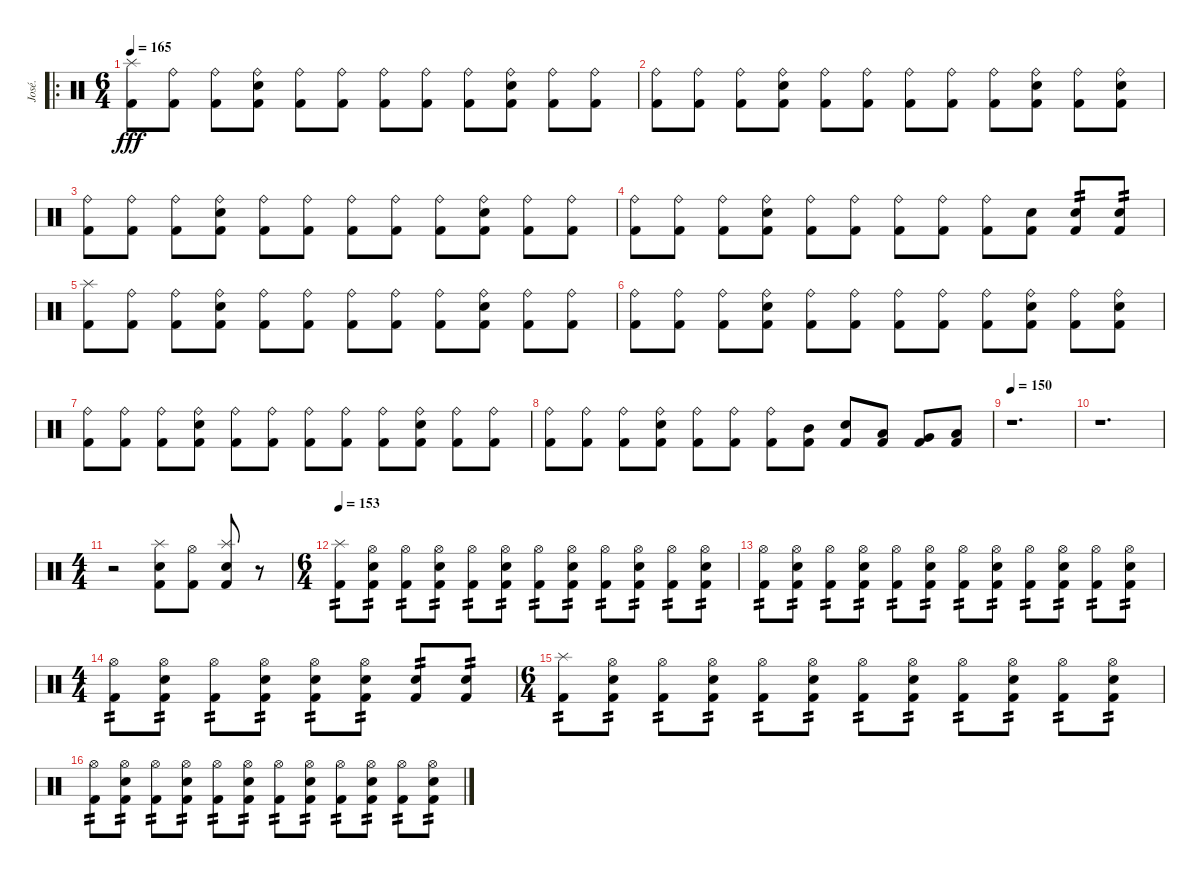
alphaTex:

\track ("José." "José.") {instrument percussion}
\staff {score}
\articulation defaults
\ro
\ts (6 4)
\tempo 165
\clef neutral
\ks c
("Kick (hit) 2" "Splash (hit)").8{dy fff} ("Kick (hit) 2" "Ride (bell)").8 ("Kick (hit) 2" "Ride (bell)").8 ("Kick (hit) 2" "Snare (hit) 2" "Ride (bell)").8 ("Kick (hit) 2" "Ride (bell)").8 ("Kick (hit) 2" "Ride (bell)").8 ("Kick (hit) 2" "Ride (bell)").8 ("Kick (hit) 2" "Ride (bell)").8 ("Kick (hit) 2" "Ride (bell)").8 ("Kick (hit) 2" "Snare (hit) 2" "Ride (bell)").8 ("Kick (hit) 2" "Ride (bell)").8 ("Kick (hit) 2" "Ride (bell)").8 |
("Kick (hit) 2" "Ride (bell)").8 ("Kick (hit) 2" "Ride (bell)").8 ("Kick (hit) 2" "Ride (bell)").8 ("Kick (hit) 2" "Snare (hit) 2" "Ride (bell)").8 ("Kick (hit) 2" "Ride (bell)").8 ("Kick (hit) 2" "Ride (bell)").8 ("Kick (hit) 2" "Ride (bell)").8 ("Kick (hit) 2" "Ride (bell)").8 ("Kick (hit) 2" "Ride (bell)").8 ("Kick (hit) 2" "Snare (hit) 2" "Ride (bell)").8 ("Kick (hit) 2" "Ride (bell)").8 ("Kick (hit) 2" "Snare (hit) 2" "Ride (bell)").8 |
("Kick (hit) 2" "Ride (bell)").8 ("Kick (hit) 2" "Ride (bell)").8 ("Kick (hit) 2" "Ride (bell)").8 ("Kick (hit) 2" "Snare (hit) 2" "Ride (bell)").8 ("Kick (hit) 2" "Ride (bell)").8 ("Kick (hit) 2" "Ride (bell)").8 ("Kick (hit) 2" "Ride (bell)").8 ("Kick (hit) 2" "Ride (bell)").8 ("Kick (hit) 2" "Ride (bell)").8 ("Kick (hit) 2" "Snare (hit) 2" "Ride (bell)").8 ("Kick (hit) 2" "Ride (bell)").8 ("Kick (hit) 2" "Ride (bell)").8 |
("Kick (hit) 2" "Ride (bell)").8 ("Kick (hit) 2" "Ride (bell)").8 ("Kick (hit) 2" "Ride (bell)").8 ("Kick (hit) 2" "Snare (hit) 2" "Ride (bell)").8 ("Kick (hit) 2" "Ride (bell)").8 ("Kick (hit) 2" "Ride (bell)").8 ("Kick (hit) 2" "Ride (bell)").8 ("Kick (hit) 2" "Ride (bell)").8 ("Kick (hit) 2" "Ride (bell)").8 ("Kick (hit) 2" "Snare (hit) 2").8 ("Kick (hit) 2" "Snare (hit) 2").8{tp 2} ("Kick (hit) 2" "Snare (hit) 2").8{tp 2} |
("Kick (hit) 2" "Splash (hit)").8 ("Kick (hit) 2" "Ride (bell)").8 ("Kick (hit) 2" "Ride (bell)").8 ("Kick (hit) 2" "Snare (hit) 2" "Ride (bell)").8 ("Kick (hit) 2" "Ride (bell)").8 ("Kick (hit) 2" "Ride (bell)").8 ("Kick (hit) 2" "Ride (bell)").8 ("Kick (hit) 2" "Ride (bell)").8 ("Kick (hit) 2" "Ride (bell)").8 ("Kick (hit) 2" "Snare (hit) 2" "Ride (bell)").8 ("Kick (hit) 2" "Ride (bell)").8 ("Kick (hit) 2" "Ride (bell)").8 |
("Kick (hit) 2" "Ride (bell)").8 ("Kick (hit) 2" "Ride (bell)").8 ("Kick (hit) 2" "Ride (bell)").8 ("Kick (hit) 2" "Snare (hit) 2" "Ride (bell)").8 ("Kick (hit) 2" "Ride (bell)").8 ("Kick (hit) 2" "Ride (bell)").8 ("Kick (hit) 2" "Ride (bell)").8 ("Kick (hit) 2" "Ride (bell)").8 ("Kick (hit) 2" "Ride (bell)").8 ("Kick (hit) 2" "Snare (hit) 2" "Ride (bell)").8 ("Kick (hit) 2" "Ride (bell)").8 ("Kick (hit) 2" "Snare (hit) 2" "Ride (bell)").8 |
("Kick (hit) 2" "Ride (bell)").8 ("Kick (hit) 2" "Ride (bell)").8 ("Kick (hit) 2" "Ride (bell)").8 ("Kick (hit) 2" "Snare (hit) 2" "Ride (bell)").8 ("Kick (hit) 2" "Ride (bell)").8 ("Kick (hit) 2" "Ride (bell)").8 ("Kick (hit) 2" "Ride (bell)").8 ("Kick (hit) 2" "Ride (bell)").8 ("Kick (hit) 2" "Ride (bell)").8 ("Kick (hit) 2" "Snare (hit) 2" "Ride (bell)").8 ("Kick (hit) 2" "Ride (bell)").8 ("Kick (hit) 2" "Ride (bell)").8 |
("Kick (hit) 2" "Ride (bell)").8 ("Kick (hit) 2" "Ride (bell)").8 ("Kick (hit) 2" "Ride (bell)").8 ("Kick (hit) 2" "Snare (hit) 2" "Ride (bell)").8 ("Kick (hit) 2" "Ride (bell)").8 ("Kick (hit) 2" "Ride (bell)").8 ("Kick (hit) 2" "Ride (bell)").8 ("Kick (hit) 2" "Mid Tom (hit)").8 ("Kick (hit) 2" "Snare (hit) 2").8 ("Kick (hit) 2" "Low Tom (hit)").8 ("Kick (hit) 2" "Very Low Tom (hit)").8 ("Kick (hit) 2" "Low Floor Tom (hit)").8 |
\tempo 150
r.1{d} |
r.1{d} |
\ts (4 4)
r.2 ("Kick (hit) 2" "Snare (hit) 2" "Splash (hit)").8 ("Kick (hit) 2" "Hi-Hat (open)").8 ("Kick (hit) 2" "Snare (hit) 2" "Splash (hit)").8 r.8 |
\ts (6 4)
\tempo 153
("Kick (hit) 2" "Splash (hit)").8{tp 2} ("Kick (hit) 2" "Snare (hit) 2" "Hi-Hat (open)").8{tp 2} ("Kick (hit) 2" "Hi-Hat (open)").8{tp 2} ("Kick (hit) 2" "Snare (hit) 2" "Hi-Hat (open)").8{tp 2} ("Kick (hit) 2" "Hi-Hat (open)").8{tp 2} ("Kick (hit) 2" "Snare (hit) 2" "Hi-Hat (open)").8{tp 2} ("Kick (hit) 2" "Hi-Hat (open)").8{tp 2} ("Kick (hit) 2" "Snare (hit) 2" "Hi-Hat (open)").8{tp 2} ("Kick (hit) 2" "Hi-Hat (open)").8{tp 2} ("Kick (hit) 2" "Snare (hit) 2" "Hi-Hat (open)").8{tp 2} ("Kick (hit) 2" "Hi-Hat (open)").8{tp 2} ("Kick (hit) 2" "Snare (hit) 2" "Hi-Hat (open)").8{tp 2} |
("Kick (hit) 2" "Hi-Hat (open)").8{tp 2} ("Kick (hit) 2" "Snare (hit) 2" "Hi-Hat (open)").8{tp 2} ("Kick (hit) 2" "Hi-Hat (open)").8{tp 2} ("Kick (hit) 2" "Snare (hit) 2" "Hi-Hat (open)").8{tp 2} ("Kick (hit) 2" "Hi-Hat (open)").8{tp 2} ("Kick (hit) 2" "Snare (hit) 2" "Hi-Hat (open)").8{tp 2} ("Kick (hit) 2" "Hi-Hat (open)").8{tp 2} ("Kick (hit) 2" "Snare (hit) 2" "Hi-Hat (open)").8{tp 2} ("Kick (hit) 2" "Hi-Hat (open)").8{tp 2} ("Kick (hit) 2" "Snare (hit) 2" "Hi-Hat (open)").8{tp 2} ("Kick (hit) 2" "Hi-Hat (open)").8{tp 2} ("Kick (hit) 2" "Snare (hit) 2" "Hi-Hat (open)").8{tp 2} |
\ts (4 4)
("Kick (hit) 2" "Hi-Hat (open)").8{tp 2} ("Kick (hit) 2" "Snare (hit) 2" "Hi-Hat (open)").8{tp 2} ("Kick (hit) 2" "Hi-Hat (open)").8{tp 2} ("Kick (hit) 2" "Snare (hit) 2" "Hi-Hat (open)").8{tp 2} ("Kick (hit) 2" "Snare (hit) 2" "Hi-Hat (open)").8{tp 2} ("Kick (hit) 2" "Snare (hit) 2" "Hi-Hat (open)").8{tp 2} ("Kick (hit) 2" "Snare (hit) 2").8{tp 2} ("Kick (hit) 2" "Snare (hit) 2").8{tp 2} |
\ts (6 4)
("Kick (hit) 2" "Splash (hit)").8{tp 2} ("Kick (hit) 2" "Snare (hit) 2" "Hi-Hat (open)").8{tp 2} ("Kick (hit) 2" "Hi-Hat (open)").8{tp 2} ("Kick (hit) 2" "Snare (hit) 2" "Hi-Hat (open)").8{tp 2} ("Kick (hit) 2" "Hi-Hat (open)").8{tp 2} ("Kick (hit) 2" "Snare (hit) 2" "Hi-Hat (open)").8{tp 2} ("Kick (hit) 2" "Hi-Hat (open)").8{tp 2} ("Kick (hit) 2" "Snare (hit) 2" "Hi-Hat (open)").8{tp 2} ("Kick (hit) 2" "Hi-Hat (open)").8{tp 2} ("Kick (hit) 2" "Snare (hit) 2" "Hi-Hat (open)").8{tp 2} ("Kick (hit) 2" "Hi-Hat (open)").8{tp 2} ("Kick (hit) 2" "Snare (hit) 2" "Hi-Hat (open)").8{tp 2} |
("Kick (hit) 2" "Hi-Hat (open)").8{tp 2} ("Kick (hit) 2" "Snare (hit) 2" "Hi-Hat (open)").8{tp 2} ("Kick (hit) 2" "Hi-Hat (open)").8{tp 2} ("Kick (hit) 2" "Snare (hit) 2" "Hi-Hat (open)").8{tp 2} ("Kick (hit) 2" "Hi-Hat (open)").8{tp 2} ("Kick (hit) 2" "Snare (hit) 2" "Hi-Hat (open)").8{tp 2} ("Kick (hit) 2" "Hi-Hat (open)").8{tp 2} ("Kick (hit) 2" "Snare (hit) 2" "Hi-Hat (open)").8{tp 2} ("Kick (hit) 2" "Hi-Hat (open)").8{tp 2} ("Kick (hit) 2" "Snare (hit) 2" "Hi-Hat (open)").8{tp 2} ("Kick (hit) 2" "Hi-Hat (open)").8{tp 2} ("Kick (hit) 2" "Snare (hit) 2" "Hi-Hat (open)").8{tp 2}
